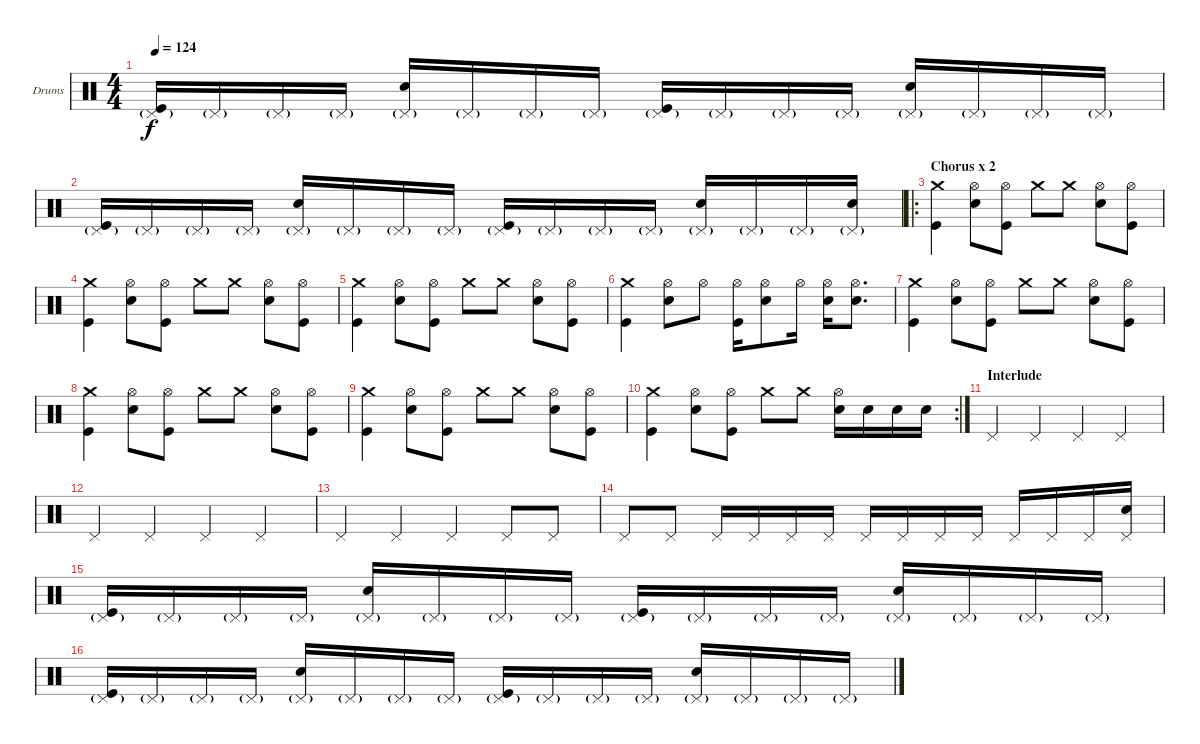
\bracketExtendMode groupsimilarinstruments
\firstSystemTrackNameOrientation horizontal
\otherSystemsTrackNameOrientation horizontal
\track ("Drumkit" "Drums") {instrument percussion}
\staff {score}
\articulation defaults
\ts (4 4)
\tempo 124
\clef neutral
\ks c
("Kick (hit)" "Pedal Hi-Hat (hit)"{g}).16{dy f} "Pedal Hi-Hat (hit)"{g}.16 "Pedal Hi-Hat (hit)"{g}.16 "Pedal Hi-Hat (hit)"{g}.16 ("Snare (hit) 2" "Pedal Hi-Hat (hit)"{g}).16 "Pedal Hi-Hat (hit)"{g}.16 "Pedal Hi-Hat (hit)"{g}.16 "Pedal Hi-Hat (hit)"{g}.16 ("Kick (hit)" "Pedal Hi-Hat (hit)"{g}).16 "Pedal Hi-Hat (hit)"{g}.16 "Pedal Hi-Hat (hit)"{g}.16 "Pedal Hi-Hat (hit)"{g}.16 ("Snare (hit) 2" "Pedal Hi-Hat (hit)"{g}).16 "Pedal Hi-Hat (hit)"{g}.16 "Pedal Hi-Hat (hit)"{g}.16 "Pedal Hi-Hat (hit)"{g}.16 |
("Kick (hit)" "Pedal Hi-Hat (hit)"{g}).16 "Pedal Hi-Hat (hit)"{g}.16 "Pedal Hi-Hat (hit)"{g}.16 "Pedal Hi-Hat (hit)"{g}.16 ("Snare (hit) 2" "Pedal Hi-Hat (hit)"{g}).16 "Pedal Hi-Hat (hit)"{g}.16 "Pedal Hi-Hat (hit)"{g}.16 "Pedal Hi-Hat (hit)"{g}.16 ("Kick (hit)" "Pedal Hi-Hat (hit)"{g}).16 "Pedal Hi-Hat (hit)"{g}.16 "Pedal Hi-Hat (hit)"{g}.16 "Pedal Hi-Hat (hit)"{g}.16 ("Snare (hit) 2" "Pedal Hi-Hat (hit)"{g}).16 "Pedal Hi-Hat (hit)"{g}.16 "Pedal Hi-Hat (hit)"{g}.16 ("Snare (hit) 2" "Pedal Hi-Hat (hit)"{g}).16 |
\ro
\section ("" "Chorus x 2")
("Kick (hit)" "Crash medium (hit)").4 ("Snare (hit) 2" "Hi-Hat (open)").8 ("Kick (hit)" "Hi-Hat (open)").8 "Crash medium (hit)".8 "Crash medium (hit)".8 ("Snare (hit) 2" "Hi-Hat (open)").8 ("Kick (hit)" "Hi-Hat (open)").8 |
("Kick (hit)" "Crash medium (hit)").4 ("Snare (hit) 2" "Hi-Hat (open)").8 ("Kick (hit)" "Hi-Hat (open)").8 "Crash medium (hit)".8 "Crash medium (hit)".8 ("Snare (hit) 2" "Hi-Hat (open)").8 ("Kick (hit)" "Hi-Hat (open)").8 |
("Kick (hit)" "Crash medium (hit)").4 ("Snare (hit) 2" "Hi-Hat (open)").8 ("Kick (hit)" "Hi-Hat (open)").8 "Crash medium (hit)".8 "Crash medium (hit)".8 ("Snare (hit) 2" "Hi-Hat (open)").8 ("Kick (hit)" "Hi-Hat (open)").8 |
("Kick (hit)" "Crash medium (hit)").4 ("Snare (hit) 2" "Hi-Hat (open)").8 "Hi-Hat (open)".8 ("Kick (hit)" "Hi-Hat (open)").16 ("Snare (hit) 2" "Hi-Hat (open)").8 "Hi-Hat (open)".16 ("Snare (hit) 2" "Hi-Hat (open)").16 ("Snare (hit) 2" "Hi-Hat (open)").8{d} |
("Kick (hit)" "Crash medium (hit)").4 ("Snare (hit) 2" "Hi-Hat (open)").8 ("Kick (hit)" "Hi-Hat (open)").8 "Crash medium (hit)".8 "Crash medium (hit)".8 ("Snare (hit) 2" "Hi-Hat (open)").8 ("Kick (hit)" "Hi-Hat (open)").8 |
("Kick (hit)" "Crash medium (hit)").4 ("Snare (hit) 2" "Hi-Hat (open)").8 ("Kick (hit)" "Hi-Hat (open)").8 "Crash medium (hit)".8 "Crash medium (hit)".8 ("Snare (hit) 2" "Hi-Hat (open)").8 ("Kick (hit)" "Hi-Hat (open)").8 |
("Kick (hit)" "Crash medium (hit)").4 ("Snare (hit) 2" "Hi-Hat (open)").8 ("Kick (hit)" "Hi-Hat (open)").8 "Crash medium (hit)".8 "Crash medium (hit)".8 ("Snare (hit) 2" "Hi-Hat (open)").8 ("Kick (hit)" "Hi-Hat (open)").8 |
\rc 2
("Kick (hit)" "Crash medium (hit)").4 ("Snare (hit) 2" "Hi-Hat (open)").8 ("Kick (hit)" "Hi-Hat (open)").8 "Crash medium (hit)".8 "Crash medium (hit)".8 ("Snare (hit) 2" "Hi-Hat (open)").16 "Snare (hit) 2".16 "Snare (hit) 2".16 "Snare (hit) 2".16 |
\section ("" "Interlude")
"Pedal Hi-Hat (hit)".4 "Pedal Hi-Hat (hit)".4 "Pedal Hi-Hat (hit)".4 "Pedal Hi-Hat (hit)".4 |
"Pedal Hi-Hat (hit)".4 "Pedal Hi-Hat (hit)".4 "Pedal Hi-Hat (hit)".4 "Pedal Hi-Hat (hit)".4 |
"Pedal Hi-Hat (hit)".4 "Pedal Hi-Hat (hit)".4 "Pedal Hi-Hat (hit)".4 "Pedal Hi-Hat (hit)".8 "Pedal Hi-Hat (hit)".8 |
"Pedal Hi-Hat (hit)".8 "Pedal Hi-Hat (hit)".8 "Pedal Hi-Hat (hit)".16 "Pedal Hi-Hat (hit)".16 "Pedal Hi-Hat (hit)".16 "Pedal Hi-Hat (hit)".16 "Pedal Hi-Hat (hit)".16 "Pedal Hi-Hat (hit)".16 "Pedal Hi-Hat (hit)".16 "Pedal Hi-Hat (hit)".16 "Pedal Hi-Hat (hit)".16 "Pedal Hi-Hat (hit)".16 "Pedal Hi-Hat (hit)".16 ("Snare (hit) 2" "Pedal Hi-Hat (hit)").16 |
("Kick (hit)" "Pedal Hi-Hat (hit)"{g}).16 "Pedal Hi-Hat (hit)"{g}.16 "Pedal Hi-Hat (hit)"{g}.16 "Pedal Hi-Hat (hit)"{g}.16 ("Snare (hit) 2" "Pedal Hi-Hat (hit)"{g}).16 "Pedal Hi-Hat (hit)"{g}.16 "Pedal Hi-Hat (hit)"{g}.16 "Pedal Hi-Hat (hit)"{g}.16 ("Kick (hit)" "Pedal Hi-Hat (hit)"{g}).16 "Pedal Hi-Hat (hit)"{g}.16 "Pedal Hi-Hat (hit)"{g}.16 "Pedal Hi-Hat (hit)"{g}.16 ("Snare (hit) 2" "Pedal Hi-Hat (hit)"{g}).16 "Pedal Hi-Hat (hit)"{g}.16 "Pedal Hi-Hat (hit)"{g}.16 "Pedal Hi-Hat (hit)"{g}.16 |
("Kick (hit)" "Pedal Hi-Hat (hit)"{g}).16 "Pedal Hi-Hat (hit)"{g}.16 "Pedal Hi-Hat (hit)"{g}.16 "Pedal Hi-Hat (hit)"{g}.16 ("Snare (hit) 2" "Pedal Hi-Hat (hit)"{g}).16 "Pedal Hi-Hat (hit)"{g}.16 "Pedal Hi-Hat (hit)"{g}.16 "Pedal Hi-Hat (hit)"{g}.16 ("Kick (hit)" "Pedal Hi-Hat (hit)"{g}).16 "Pedal Hi-Hat (hit)"{g}.16 "Pedal Hi-Hat (hit)"{g}.16 "Pedal Hi-Hat (hit)"{g}.16 ("Snare (hit) 2" "Pedal Hi-Hat (hit)"{g}).16 "Pedal Hi-Hat (hit)"{g}.16 "Pedal Hi-Hat (hit)"{g}.16 "Pedal Hi-Hat (hit)"{g}.16
